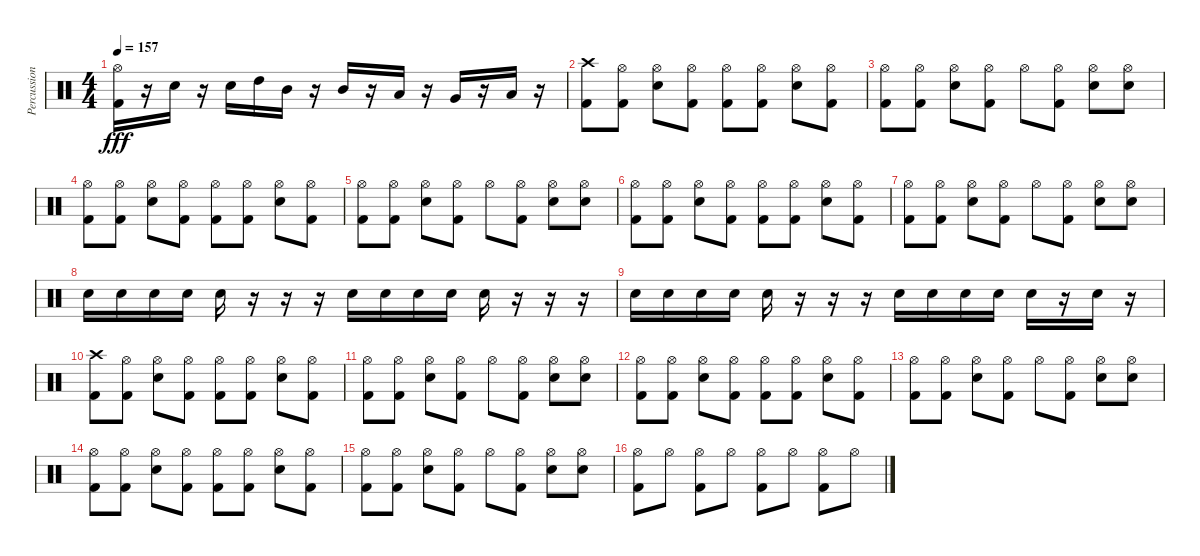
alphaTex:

\track ("Percussion" "Percussion") {instrument percussion}
\staff {score}
\articulation defaults
\ts (4 4)
\tempo 157
\clef neutral
\ks c
("Hi-Hat (open)" "Kick (hit) 2").16{dy fff} r.16 "Electric Snare (hit)".16 r.16 "Electric Snare (hit)".16 "High Tom (hit)".16 "Mid Tom (hit)".16 r.16 "Mid Tom (hit)".16 r.16 "Low Tom (hit)".16 r.16 "Very Low Tom (hit)".16 r.16 "Low Floor Tom (hit)".16 r.16 |
("Crash high (hit)" "Kick (hit) 2").8 ("Hi-Hat (open)" "Kick (hit) 2").8 ("Hi-Hat (open)" "Electric Snare (hit)").8 ("Hi-Hat (open)" "Kick (hit) 2").8 ("Hi-Hat (open)" "Kick (hit) 2").8 ("Hi-Hat (open)" "Kick (hit) 2").8 ("Hi-Hat (open)" "Electric Snare (hit)").8 ("Hi-Hat (open)" "Kick (hit) 2").8 |
("Hi-Hat (open)" "Kick (hit) 2").8 ("Hi-Hat (open)" "Kick (hit) 2").8 ("Hi-Hat (open)" "Electric Snare (hit)").8 ("Hi-Hat (open)" "Kick (hit) 2").8 "Hi-Hat (open)".8 ("Hi-Hat (open)" "Kick (hit) 2").8 ("Hi-Hat (open)" "Electric Snare (hit)").8 ("Hi-Hat (open)" "Electric Snare (hit)").8 |
("Hi-Hat (open)" "Kick (hit) 2").8 ("Hi-Hat (open)" "Kick (hit) 2").8 ("Hi-Hat (open)" "Electric Snare (hit)").8 ("Hi-Hat (open)" "Kick (hit) 2").8 ("Hi-Hat (open)" "Kick (hit) 2").8 ("Hi-Hat (open)" "Kick (hit) 2").8 ("Hi-Hat (open)" "Electric Snare (hit)").8 ("Hi-Hat (open)" "Kick (hit) 2").8 |
("Hi-Hat (open)" "Kick (hit) 2").8 ("Hi-Hat (open)" "Kick (hit) 2").8 ("Hi-Hat (open)" "Electric Snare (hit)").8 ("Hi-Hat (open)" "Kick (hit) 2").8 "Hi-Hat (open)".8 ("Hi-Hat (open)" "Kick (hit) 2").8 ("Hi-Hat (open)" "Electric Snare (hit)").8 ("Hi-Hat (open)" "Electric Snare (hit)").8 |
("Hi-Hat (open)" "Kick (hit) 2").8 ("Hi-Hat (open)" "Kick (hit) 2").8 ("Hi-Hat (open)" "Electric Snare (hit)").8 ("Hi-Hat (open)" "Kick (hit) 2").8 ("Hi-Hat (open)" "Kick (hit) 2").8 ("Hi-Hat (open)" "Kick (hit) 2").8 ("Hi-Hat (open)" "Electric Snare (hit)").8 ("Hi-Hat (open)" "Kick (hit) 2").8 |
("Hi-Hat (open)" "Kick (hit) 2").8 ("Hi-Hat (open)" "Kick (hit) 2").8 ("Hi-Hat (open)" "Electric Snare (hit)").8 ("Hi-Hat (open)" "Kick (hit) 2").8 "Hi-Hat (open)".8 ("Hi-Hat (open)" "Kick (hit) 2").8 ("Hi-Hat (open)" "Electric Snare (hit)").8 ("Hi-Hat (open)" "Electric Snare (hit)").8 |
"Electric Snare (hit)".16 "Electric Snare (hit)".16 "Electric Snare (hit)".16 "Electric Snare (hit)".16 "Electric Snare (hit)".16 r.16 r.16 r.16 "Electric Snare (hit)".16 "Electric Snare (hit)".16 "Electric Snare (hit)".16 "Electric Snare (hit)".16 "Electric Snare (hit)".16 r.16 r.16 r.16 |
"Electric Snare (hit)".16 "Electric Snare (hit)".16 "Electric Snare (hit)".16 "Electric Snare (hit)".16 "Electric Snare (hit)".16 r.16 r.16 r.16 "Electric Snare (hit)".16 "Electric Snare (hit)".16 "Electric Snare (hit)".16 "Electric Snare (hit)".16 "Electric Snare (hit)".16 r.16 "Electric Snare (hit)".16 r.16 |
("Crash high (hit)" "Kick (hit) 2").8 ("Hi-Hat (open)" "Kick (hit) 2").8 ("Hi-Hat (open)" "Electric Snare (hit)").8 ("Hi-Hat (open)" "Kick (hit) 2").8 ("Hi-Hat (open)" "Kick (hit) 2").8 ("Hi-Hat (open)" "Kick (hit) 2").8 ("Hi-Hat (open)" "Electric Snare (hit)").8 ("Hi-Hat (open)" "Kick (hit) 2").8 |
("Hi-Hat (open)" "Kick (hit) 2").8 ("Hi-Hat (open)" "Kick (hit) 2").8 ("Hi-Hat (open)" "Electric Snare (hit)").8 ("Hi-Hat (open)" "Kick (hit) 2").8 "Hi-Hat (open)".8 ("Hi-Hat (open)" "Kick (hit) 2").8 ("Hi-Hat (open)" "Electric Snare (hit)").8 ("Hi-Hat (open)" "Electric Snare (hit)").8 |
("Hi-Hat (open)" "Kick (hit) 2").8 ("Hi-Hat (open)" "Kick (hit) 2").8 ("Hi-Hat (open)" "Electric Snare (hit)").8 ("Hi-Hat (open)" "Kick (hit) 2").8 ("Hi-Hat (open)" "Kick (hit) 2").8 ("Hi-Hat (open)" "Kick (hit) 2").8 ("Hi-Hat (open)" "Electric Snare (hit)").8 ("Hi-Hat (open)" "Kick (hit) 2").8 |
("Hi-Hat (open)" "Kick (hit) 2").8 ("Hi-Hat (open)" "Kick (hit) 2").8 ("Hi-Hat (open)" "Electric Snare (hit)").8 ("Hi-Hat (open)" "Kick (hit) 2").8 "Hi-Hat (open)".8 ("Hi-Hat (open)" "Kick (hit) 2").8 ("Hi-Hat (open)" "Electric Snare (hit)").8 ("Hi-Hat (open)" "Electric Snare (hit)").8 |
("Hi-Hat (open)" "Kick (hit) 2").8 ("Hi-Hat (open)" "Kick (hit) 2").8 ("Hi-Hat (open)" "Electric Snare (hit)").8 ("Hi-Hat (open)" "Kick (hit) 2").8 ("Hi-Hat (open)" "Kick (hit) 2").8 ("Hi-Hat (open)" "Kick (hit) 2").8 ("Hi-Hat (open)" "Electric Snare (hit)").8 ("Hi-Hat (open)" "Kick (hit) 2").8 |
("Hi-Hat (open)" "Kick (hit) 2").8 ("Hi-Hat (open)" "Kick (hit) 2").8 ("Hi-Hat (open)" "Electric Snare (hit)").8 ("Hi-Hat (open)" "Kick (hit) 2").8 "Hi-Hat (open)".8 ("Hi-Hat (open)" "Kick (hit) 2").8 ("Hi-Hat (open)" "Electric Snare (hit)").8 ("Hi-Hat (open)" "Electric Snare (hit)").8 |
("Hi-Hat (open)" "Kick (hit) 2").8 "Hi-Hat (open)".8 ("Hi-Hat (open)" "Kick (hit) 2").8 "Hi-Hat (open)".8 ("Hi-Hat (open)" "Kick (hit) 2").8 "Hi-Hat (open)".8 ("Hi-Hat (open)" "Kick (hit) 2").8 "Hi-Hat (open)".8
